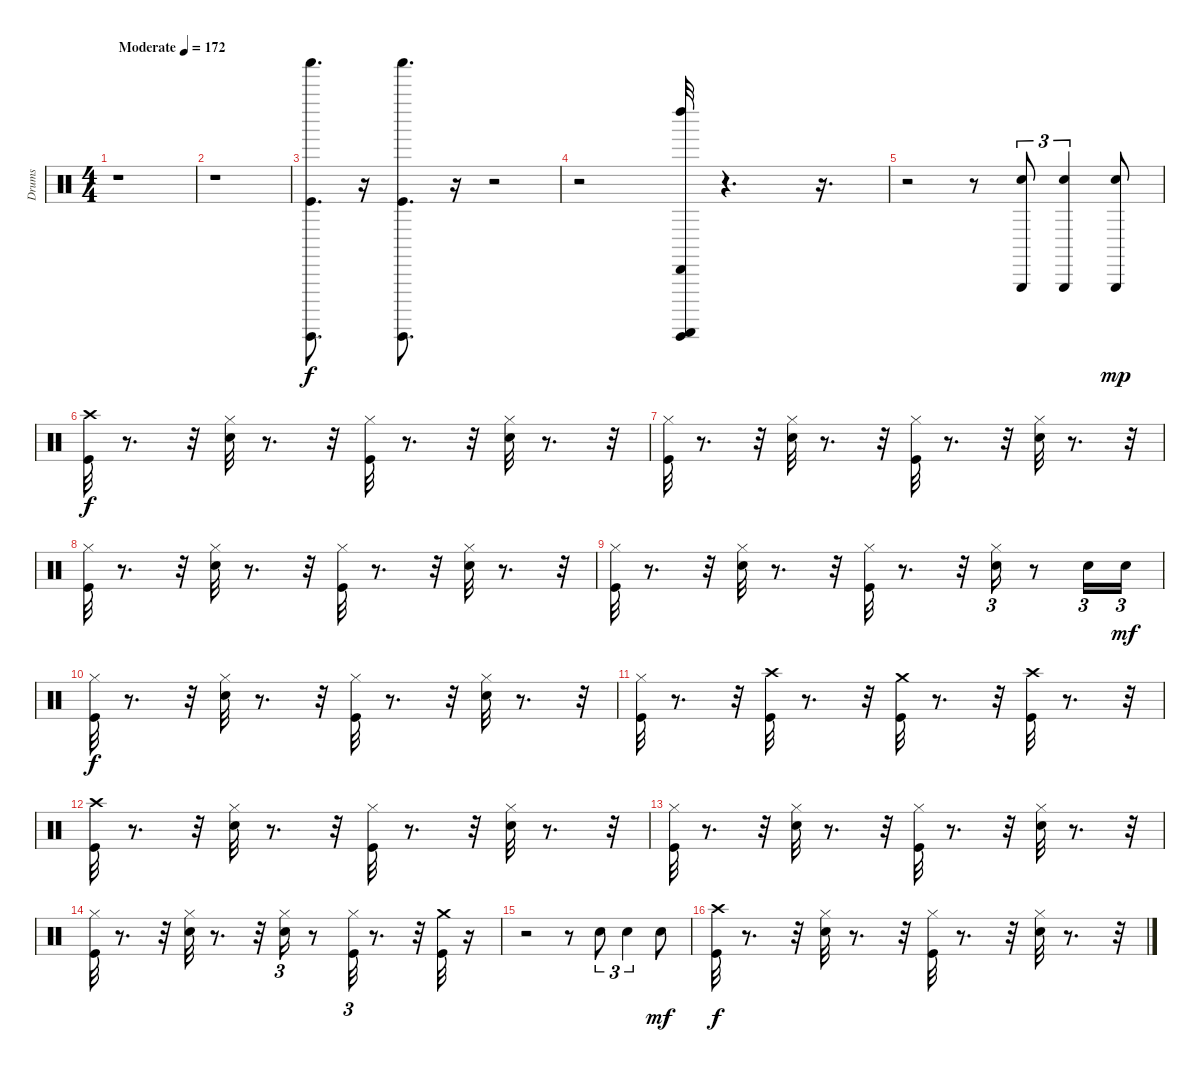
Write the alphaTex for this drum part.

\track ("Drums" "Drums") {instrument percussion}
\staff {score}
\articulation defaults
\ts (4 4)
\tempo (172 "Moderate")
\clef neutral
\ks c
r.1{dy f} |
r.1 |
("Shaker (hit)" "Guiro (hit)" "Kick (hit)").8{d} r.16 ("Shaker (hit)" "Guiro (hit)" "Kick (hit)").8{d} r.16 r.2 |
r.2 ("Guiro (scrap-return)" "Guiro (hit)" "Cabasa (hit)" "Left Maraca (hit)").32 r.4{d} r.16{d} |
r.2 r.8 ("Triangle (hit)" "Electric Snare (hit)").8{tu (3 2)} ("Triangle (hit)" "Electric Snare (hit)").4{tu (3 2)} ("Triangle (hit)" "Electric Snare (hit)").8{dy mp} |
("Crash high (hit)" "Kick (hit)").32{dy f} r.8{d} r.32 ("Hi-Hat (closed)" "Snare (hit) 2").32 r.8{d} r.32 ("Kick (hit)" "Hi-Hat (closed)").32 r.8{d} r.32 ("Hi-Hat (closed)" "Snare (hit) 2").32 r.8{d} r.32 |
("Hi-Hat (closed)" "Kick (hit)").32 r.8{d} r.32 ("Snare (hit) 2" "Hi-Hat (closed)").32 r.8{d} r.32 ("Hi-Hat (closed)" "Kick (hit)").32 r.8{d} r.32 ("Hi-Hat (closed)" "Snare (hit) 2").32 r.8{d} r.32 |
("Hi-Hat (closed)" "Kick (hit)").32 r.8{d} r.32 ("Snare (hit) 2" "Hi-Hat (closed)").32 r.8{d} r.32 ("Hi-Hat (closed)" "Kick (hit)").32 r.8{d} r.32 ("Snare (hit) 2" "Hi-Hat (closed)").32 r.8{d} r.32 |
("Hi-Hat (closed)" "Kick (hit)").32 r.8{d} r.32 ("Snare (hit) 2" "Hi-Hat (closed)").32 r.8{d} r.32 ("Hi-Hat (closed)" "Kick (hit)").32 r.8{d} r.32 ("Snare (hit) 2" "Hi-Hat (closed)").16{tu (3 2)} r.8 "Snare (hit) 2".16{tu (3 2)} "Snare (hit) 2".16{tu (3 2) dy mf} |
("Hi-Hat (closed)" "Kick (hit)").32{dy f} r.8{d} r.32 ("Snare (hit) 2" "Hi-Hat (closed)").32 r.8{d} r.32 ("Hi-Hat (closed)" "Kick (hit)").32 r.8{d} r.32 ("Snare (hit) 2" "Hi-Hat (closed)").32 r.8{d} r.32 |
("Kick (hit)" "Hi-Hat (closed)").32 r.8{d} r.32 ("Kick (hit)" "Crash high (hit)").32 r.8{d} r.32 ("Kick (hit)" "Crash medium (hit)").32 r.8{d} r.32 ("Kick (hit)" "Crash high (hit)").32 r.8{d} r.32 |
("Crash high (hit)" "Kick (hit)").32 r.8{d} r.32 ("Snare (hit) 2" "Hi-Hat (closed)").32 r.8{d} r.32 ("Kick (hit)" "Hi-Hat (closed)").32 r.8{d} r.32 ("Snare (hit) 2" "Hi-Hat (closed)").32 r.8{d} r.32 |
("Hi-Hat (closed)" "Kick (hit)").32 r.8{d} r.32 ("Snare (hit) 2" "Hi-Hat (closed)").32 r.8{d} r.32 ("Hi-Hat (closed)" "Kick (hit)").32 r.8{d} r.32 ("Snare (hit) 2" "Hi-Hat (closed)").32 r.8{d} r.32 |
("Hi-Hat (closed)" "Kick (hit)").32 r.8{d} r.32 ("Snare (hit) 2" "Hi-Hat (closed)").32 r.8{d} r.32 ("Snare (hit) 2" "Hi-Hat (closed)").16{tu (3 2)} r.8 ("Kick (hit)" "Hi-Hat (closed)").32{tu (3 2)} r.8{d} r.32 ("Kick (hit)" "Crash medium (hit)").32 r.16 |
r.2 r.8 "Electric Snare (hit)".8{tu (3 2)} "Electric Snare (hit)".4{tu (3 2)} "Electric Snare (hit)".8{dy mf} |
("Crash high (hit)" "Kick (hit)").32{dy f} r.8{d} r.32 ("Snare (hit) 2" "Hi-Hat (closed)").32 r.8{d} r.32 ("Hi-Hat (closed)" "Kick (hit)").32 r.8{d} r.32 ("Snare (hit) 2" "Hi-Hat (closed)").32 r.8{d} r.32
